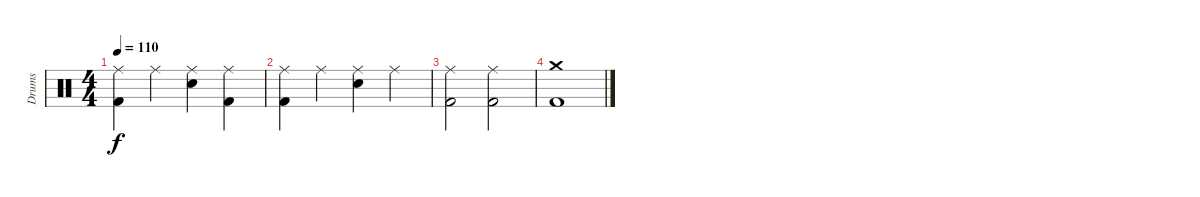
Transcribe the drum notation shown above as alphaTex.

\track ("Drums" "Drums") {instrument percussion}
\staff {score}
\articulation defaults
\ts (4 4)
\tempo 110
\clef neutral
\ks c
("Ride (middle)" "Kick (hit) 2").4{dy f} "Ride (middle)".4 ("Ride (middle)" "Electric Snare (hit)").4 ("Ride (middle)" "Kick (hit) 2").4 |
("Ride (middle)" "Kick (hit) 2").4 "Ride (middle)".4 ("Ride (middle)" "Electric Snare (hit)").4 "Ride (middle)".4 |
("Ride (middle)" "Kick (hit) 2").2 ("Ride (middle)" "Kick (hit) 2").2 |
("Crash medium (hit)" "Kick (hit) 2").1
